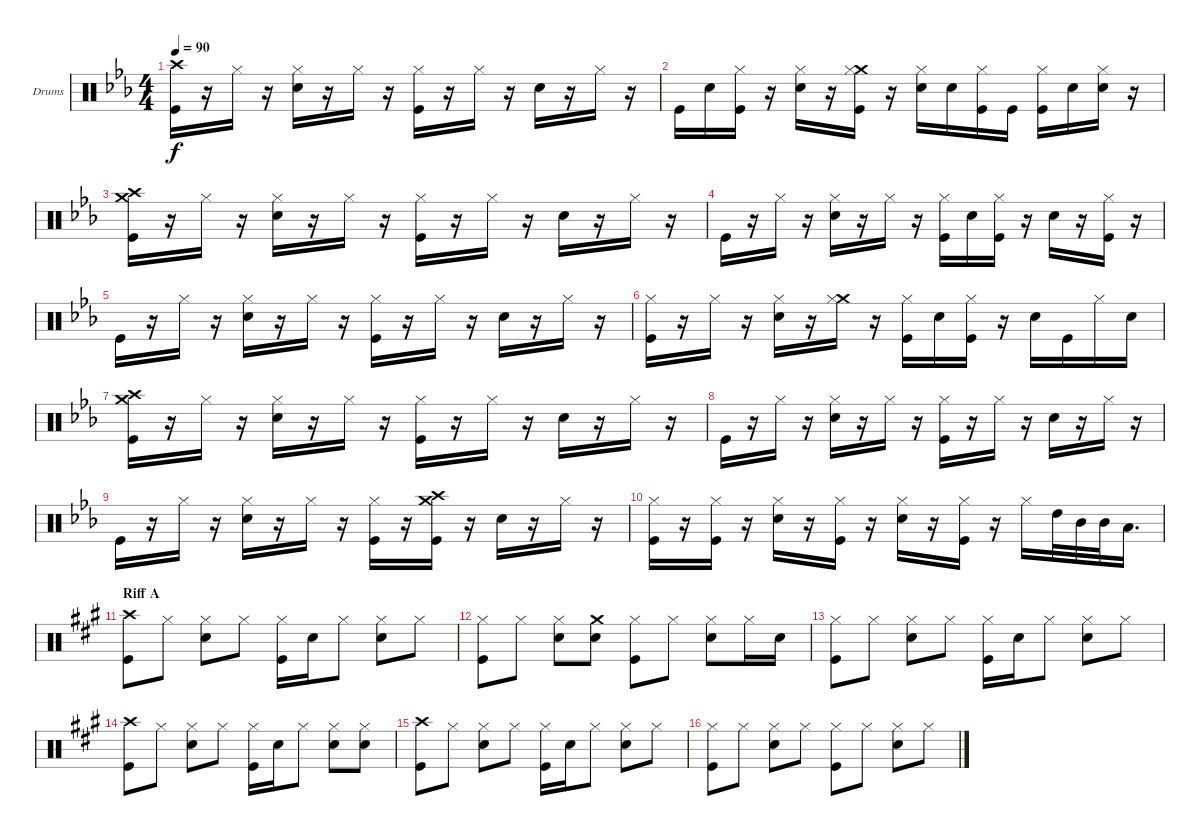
\bracketExtendMode groupsimilarinstruments
\firstSystemTrackNameOrientation horizontal
\otherSystemsTrackNameOrientation horizontal
\track ("Drumkit" "Drums") {instrument percussion}
\staff {score}
\articulation defaults
\ts (4 4)
\tempo 90
\clef neutral
\ks cminor
("Crash high (hit)" "Kick (hit)").16{dy f} r.16 "Hi-Hat (closed)".16 r.16 ("Hi-Hat (closed)" "Snare (hit) 2").16 r.16 "Hi-Hat (closed)".16 r.16 ("Hi-Hat (closed)" "Kick (hit)").16 r.16 "Hi-Hat (closed)".16 r.16 "Snare (hit) 2".16 r.16 "Hi-Hat (closed)".16 r.16 |
"Kick (hit)".16 "Snare (hit) 2".16 ("Hi-Hat (closed)" "Kick (hit)").16 r.16 ("Hi-Hat (closed)" "Snare (hit) 2").16 r.16 ("Crash medium (hit)" "Hi-Hat (closed)" "Kick (hit)").16 r.16 ("Hi-Hat (closed)" "Snare (hit) 2").16 "Snare (hit) 2".16 ("Hi-Hat (closed)" "Kick (hit)").16 "Kick (hit)".16 ("Hi-Hat (closed)" "Kick (hit)").16 "Snare (hit) 2".16 ("Hi-Hat (closed)" "Snare (hit) 2").16 r.16 |
("Crash high (hit)" "Crash medium (hit)" "Kick (hit)").16 r.16 "Hi-Hat (closed)".16 r.16 ("Hi-Hat (closed)" "Snare (hit) 2").16 r.16 "Hi-Hat (closed)".16 r.16 ("Hi-Hat (closed)" "Kick (hit)").16 r.16 "Hi-Hat (closed)".16 r.16 "Snare (hit) 2".16 r.16 "Hi-Hat (closed)".16 r.16 |
"Kick (hit)".16 r.16 "Hi-Hat (closed)".16 r.16 ("Hi-Hat (closed)" "Snare (hit) 2").16 r.16 "Hi-Hat (closed)".16 r.16 ("Hi-Hat (closed)" "Kick (hit)").16 "Snare (hit) 2".16 ("Hi-Hat (closed)" "Kick (hit)").16 r.16 "Snare (hit) 2".16 r.16 ("Hi-Hat (closed)" "Kick (hit)").16 r.16 |
"Kick (hit)".16 r.16 "Hi-Hat (closed)".16 r.16 ("Hi-Hat (closed)" "Snare (hit) 2").16 r.16 "Hi-Hat (closed)".16 r.16 ("Hi-Hat (closed)" "Kick (hit)").16 r.16 "Hi-Hat (closed)".16 r.16 "Snare (hit) 2".16 r.16 "Hi-Hat (closed)".16 r.16 |
("Hi-Hat (closed)" "Kick (hit)").16 r.16 "Hi-Hat (closed)".16 r.16 ("Hi-Hat (closed)" "Snare (hit) 2").16 r.16 ("Crash medium (hit)" "Hi-Hat (closed)").16 r.16 ("Hi-Hat (closed)" "Kick (hit)").16 "Snare (hit) 2".16 ("Hi-Hat (closed)" "Kick (hit)").16 r.16 "Snare (hit) 2".16 "Kick (hit)".16 "Hi-Hat (closed)".16 "Snare (hit) 2".16 |
("Crash high (hit)" "Crash medium (hit)" "Kick (hit)").16 r.16 "Hi-Hat (closed)".16 r.16 ("Hi-Hat (closed)" "Snare (hit) 2").16 r.16 "Hi-Hat (closed)".16 r.16 ("Hi-Hat (closed)" "Kick (hit)").16 r.16 "Hi-Hat (closed)".16 r.16 "Snare (hit) 2".16 r.16 "Hi-Hat (closed)".16 r.16 |
"Kick (hit)".16 r.16 "Hi-Hat (closed)".16 r.16 ("Hi-Hat (closed)" "Snare (hit) 2").16 r.16 "Hi-Hat (closed)".16 r.16 ("Hi-Hat (closed)" "Kick (hit)").16 r.16 "Hi-Hat (closed)".16 r.16 "Snare (hit) 2".16 r.16 "Hi-Hat (closed)".16 r.16 |
"Kick (hit)".16 r.16 "Hi-Hat (closed)".16 r.16 ("Hi-Hat (closed)" "Snare (hit) 2").16 r.16 "Hi-Hat (closed)".16 r.16 ("Hi-Hat (closed)" "Kick (hit)").16 r.16 ("Crash high (hit)" "Crash medium (hit)" "Kick (hit)").16 r.16 "Snare (hit) 2".16 r.16 "Hi-Hat (closed)".16 r.16 |
("Hi-Hat (closed)" "Kick (hit)").16 r.16 ("Hi-Hat (closed)" "Kick (hit)").16 r.16 ("Hi-Hat (closed)" "Snare (hit) 2").16 r.16 ("Hi-Hat (closed)" "Kick (hit)").16 r.16 ("Hi-Hat (closed)" "Snare (hit) 2").16 r.16 ("Hi-Hat (closed)" "Kick (hit)").16 r.16 "Hi-Hat (closed)".16 "High Tom (hit)".32 "Mid Tom (hit)".32 "Mid Tom (hit)".32 "Low Tom (hit)".16{d} |
\section ("" "Riff A")
\ks a
("Crash high (hit)" "Kick (hit)").8 "Hi-Hat (closed)".8 ("Hi-Hat (closed)" "Snare (hit) 2").8 "Hi-Hat (closed)".8 ("Hi-Hat (closed)" "Kick (hit)").16 "Snare (hit) 2".16 "Hi-Hat (closed)".8 ("Hi-Hat (closed)" "Snare (hit) 2").8 "Hi-Hat (closed)".8 |
("Hi-Hat (closed)" "Kick (hit)").8 "Hi-Hat (closed)".8 ("Hi-Hat (closed)" "Snare (hit) 2").8 ("Crash medium (hit)" "Snare (hit) 2").8 ("Hi-Hat (closed)" "Kick (hit)").8 "Hi-Hat (closed)".8 ("Hi-Hat (closed)" "Snare (hit) 2").8 "Hi-Hat (closed)".16 "Snare (hit) 2".16 |
("Hi-Hat (closed)" "Kick (hit)").8 "Hi-Hat (closed)".8 ("Hi-Hat (closed)" "Snare (hit) 2").8 "Hi-Hat (closed)".8 ("Hi-Hat (closed)" "Kick (hit)").16 "Snare (hit) 2".16 "Hi-Hat (closed)".8 ("Hi-Hat (closed)" "Snare (hit) 2").8 "Hi-Hat (closed)".8 |
("Crash high (hit)" "Kick (hit)").8 "Hi-Hat (closed)".8 ("Hi-Hat (closed)" "Snare (hit) 2").8 "Hi-Hat (closed)".8 ("Hi-Hat (closed)" "Kick (hit)").16 "Snare (hit) 2".16 "Hi-Hat (closed)".8 ("Hi-Hat (closed)" "Snare (hit) 2").8 ("Hi-Hat (closed)" "Snare (hit) 2").8 |
("Crash high (hit)" "Kick (hit)").8 "Hi-Hat (closed)".8 ("Hi-Hat (closed)" "Snare (hit) 2").8 "Hi-Hat (closed)".8 ("Hi-Hat (closed)" "Kick (hit)").16 "Snare (hit) 2".16 "Hi-Hat (closed)".8 ("Hi-Hat (closed)" "Snare (hit) 2").8 "Hi-Hat (closed)".8 |
("Hi-Hat (closed)" "Kick (hit)").8 "Hi-Hat (closed)".8 ("Hi-Hat (closed)" "Snare (hit) 2").8 "Hi-Hat (closed)".8 ("Hi-Hat (closed)" "Kick (hit)").8 "Hi-Hat (closed)".8 ("Hi-Hat (closed)" "Snare (hit) 2").8 "Hi-Hat (closed)".8
